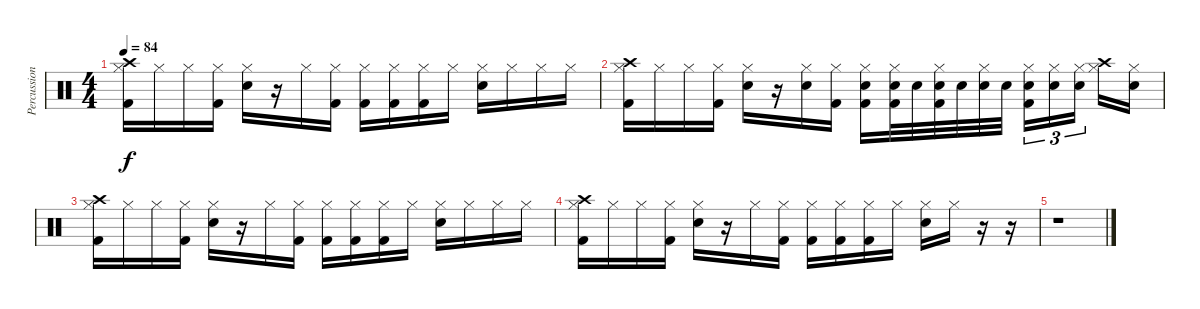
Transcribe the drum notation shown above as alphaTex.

\track ("Percussions" "Percussion") {instrument percussion}
\staff {score}
\articulation defaults
\ts (4 4)
\tempo 84
\clef neutral
\ks c
("Kick (hit) 2" "Hi-Hat (closed)" "Crash high (hit)").16{dy f} "Hi-Hat (closed)".16 "Hi-Hat (closed)".16 ("Kick (hit) 2" "Hi-Hat (closed)").16 ("Electric Snare (hit)" "Hi-Hat (closed)").16 r.16 "Hi-Hat (closed)".16 ("Kick (hit) 2" "Hi-Hat (closed)").16 ("Kick (hit) 2" "Hi-Hat (closed)").16 ("Kick (hit) 2" "Hi-Hat (closed)").16 ("Kick (hit) 2" "Hi-Hat (closed)").16 "Hi-Hat (closed)".16 ("Electric Snare (hit)" "Hi-Hat (closed)").16 "Hi-Hat (closed)".16 "Hi-Hat (closed)".16 "Hi-Hat (closed)".16 |
("Kick (hit) 2" "Hi-Hat (closed)" "Crash high (hit)").16 "Hi-Hat (closed)".16 "Hi-Hat (closed)".16 ("Kick (hit) 2" "Hi-Hat (closed)").16 ("Electric Snare (hit)" "Hi-Hat (closed)").16 r.16 ("Hi-Hat (closed)" "Electric Snare (hit)").16 ("Kick (hit) 2" "Hi-Hat (closed)").16 ("Kick (hit) 2" "Hi-Hat (closed)" "Electric Snare (hit)").16 ("Kick (hit) 2" "Hi-Hat (closed)" "Electric Snare (hit)").32 "Electric Snare (hit)".32 ("Kick (hit) 2" "Hi-Hat (closed)" "Electric Snare (hit)").32 "Electric Snare (hit)".32 ("Hi-Hat (closed)" "Electric Snare (hit)").32 "Electric Snare (hit)".32 ("Kick (hit) 2" "Hi-Hat (closed)" "Electric Snare (hit)").16{tu (3 2)} ("Hi-Hat (closed)" "Electric Snare (hit)").16{tu (3 2)} ("Hi-Hat (closed)" "Electric Snare (hit)").16{tu (3 2)} ("Crash high (hit)" "Hi-Hat (closed)").16 ("Hi-Hat (closed)" "Electric Snare (hit)").16 |
("Kick (hit) 2" "Hi-Hat (closed)" "Crash high (hit)").16 "Hi-Hat (closed)".16 "Hi-Hat (closed)".16 ("Kick (hit) 2" "Hi-Hat (closed)").16 ("Electric Snare (hit)" "Hi-Hat (closed)").16 r.16 "Hi-Hat (closed)".16 ("Kick (hit) 2" "Hi-Hat (closed)").16 ("Kick (hit) 2" "Hi-Hat (closed)").16 ("Kick (hit) 2" "Hi-Hat (closed)").16 ("Kick (hit) 2" "Hi-Hat (closed)").16 "Hi-Hat (closed)".16 ("Electric Snare (hit)" "Hi-Hat (closed)").16 "Hi-Hat (closed)".16 "Hi-Hat (closed)".16 "Hi-Hat (closed)".16 |
("Kick (hit) 2" "Hi-Hat (closed)" "Crash high (hit)").16 "Hi-Hat (closed)".16 "Hi-Hat (closed)".16 ("Kick (hit) 2" "Hi-Hat (closed)").16 ("Electric Snare (hit)" "Hi-Hat (closed)").16 r.16 "Hi-Hat (closed)".16 ("Kick (hit) 2" "Hi-Hat (closed)").16 ("Kick (hit) 2" "Hi-Hat (closed)").16 ("Kick (hit) 2" "Hi-Hat (closed)").16 ("Kick (hit) 2" "Hi-Hat (closed)").16 "Hi-Hat (closed)".16 ("Electric Snare (hit)" "Hi-Hat (closed)").16 "Hi-Hat (closed)".16 r.16 r.16 |
r.1
